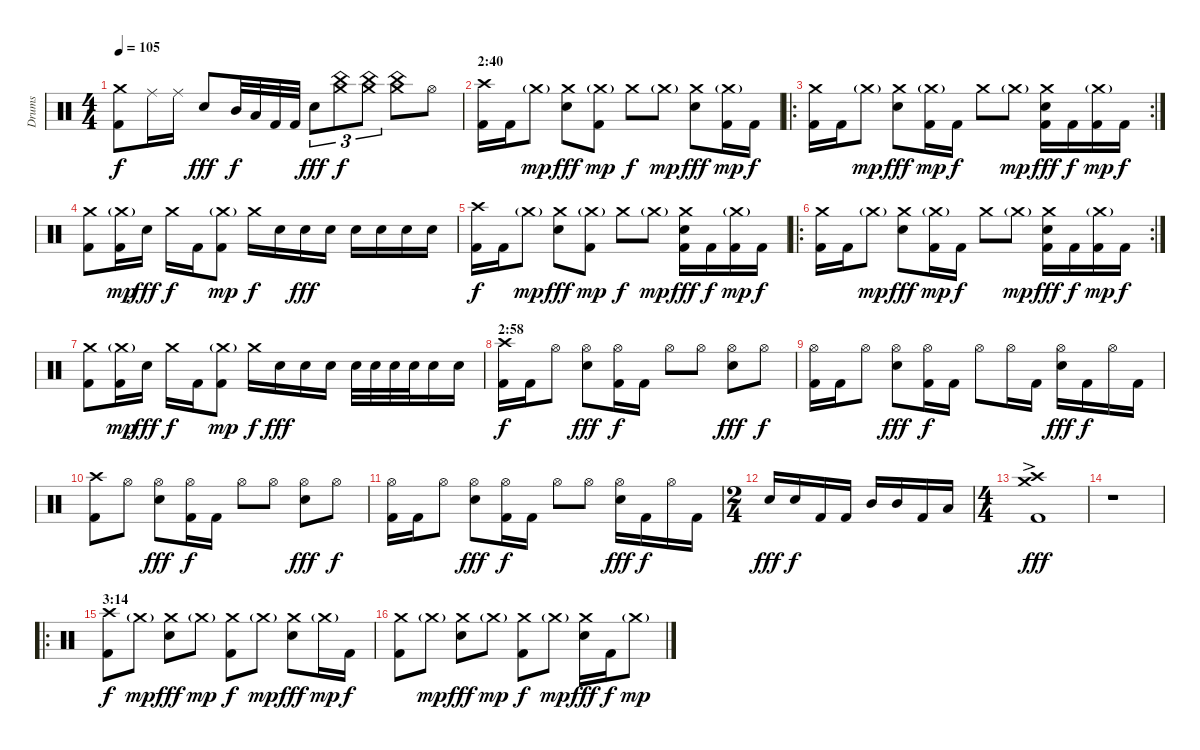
\track ("Drums" "Drums") {instrument percussion}
\staff {score}
\articulation defaults
\ts (4 4)
\tempo 105
\clef neutral
\ks c
("Crash medium (hit)" "Kick (hit) 2").8{dy f} "Ride (middle)".16 "Ride (middle)".16 "Snare (hit) 2".8{dy fff} "Mid Tom (hit)".32{dy f} "Low Tom (hit)".32 "Kick (hit) 2".32 "Kick (hit) 2".32 "Snare (hit) 2".8{tu (3 2) dy fff} ("China (hit)" "Crash medium (hit)").8{tu (3 2) dy f} ("China (hit)" "Crash medium (hit)").8{tu (3 2)} ("China (hit)" "Crash medium (hit)").8 "Hi-Hat (open)".8 |
\section ("" "2:40")
("Crash high (hit)" "Kick (hit) 2").16 "Kick (hit) 2".16 "Crash medium (hit)"{g}.8{dy mp} ("Crash medium (hit)" "Snare (hit) 2").8{dy fff} ("Crash medium (hit)"{g} "Kick (hit) 2").8{dy mp} "Crash medium (hit)".8{dy f} "Crash medium (hit)"{g}.8{dy mp} ("Crash medium (hit)" "Snare (hit) 2").8{dy fff} ("Crash medium (hit)"{g} "Kick (hit) 2").16{dy mp} "Kick (hit) 2".16{dy f} |
\ro
\rc 2
("Crash medium (hit)" "Kick (hit) 2").16 "Kick (hit) 2".16 "Crash medium (hit)"{g}.8{dy mp} ("Crash medium (hit)" "Snare (hit) 2").8{dy fff} ("Crash medium (hit)"{g} "Kick (hit) 2").16{dy mp} "Kick (hit) 2".16{dy f} "Crash medium (hit)".8 "Crash medium (hit)"{g}.8{dy mp} ("Crash medium (hit)" "Snare (hit) 2" "Kick (hit) 2").16{dy fff} "Kick (hit) 2".16{dy f} ("Crash medium (hit)"{g} "Kick (hit) 2").16{dy mp} "Kick (hit) 2".16{dy f} |
("Crash medium (hit)" "Kick (hit) 2").8 ("Crash medium (hit)"{g} "Kick (hit) 2").16{dy mp} "Snare (hit) 2".16{dy fff} "Crash medium (hit)".16{dy f} "Kick (hit) 2".16 ("Crash medium (hit)"{g} "Kick (hit) 2").8{dy mp} "Crash medium (hit)".16{dy f} "Snare (hit) 2".16 "Snare (hit) 2".16{dy fff} "Snare (hit) 2".16 "Snare (hit) 2".16 "Snare (hit) 2".16 "Snare (hit) 2".16 "Snare (hit) 2".16 |
("Crash high (hit)" "Kick (hit) 2").16{dy f} "Kick (hit) 2".16 "Crash medium (hit)"{g}.8{dy mp} ("Crash medium (hit)" "Snare (hit) 2").8{dy fff} ("Crash medium (hit)"{g} "Kick (hit) 2").8{dy mp} "Crash medium (hit)".8{dy f} "Crash medium (hit)"{g}.8{dy mp} ("Crash medium (hit)" "Snare (hit) 2" "Kick (hit) 2").16{dy fff} "Kick (hit) 2".16{dy f} ("Crash medium (hit)"{g} "Kick (hit) 2").16{dy mp} "Kick (hit) 2".16{dy f} |
\ro
\rc 2
("Crash medium (hit)" "Kick (hit) 2").16 "Kick (hit) 2".16 "Crash medium (hit)"{g}.8{dy mp} ("Crash medium (hit)" "Snare (hit) 2").8{dy fff} ("Crash medium (hit)"{g} "Kick (hit) 2").16{dy mp} "Kick (hit) 2".16{dy f} "Crash medium (hit)".8 "Crash medium (hit)"{g}.8{dy mp} ("Crash medium (hit)" "Snare (hit) 2" "Kick (hit) 2").16{dy fff} "Kick (hit) 2".16{dy f} ("Crash medium (hit)"{g} "Kick (hit) 2").16{dy mp} "Kick (hit) 2".16{dy f} |
("Crash medium (hit)" "Kick (hit) 2").8 ("Crash medium (hit)"{g} "Kick (hit) 2").16{dy mp} "Snare (hit) 2".16{dy fff} "Crash medium (hit)".16{dy f} "Kick (hit) 2".16 ("Crash medium (hit)"{g} "Kick (hit) 2").8{dy mp} "Crash medium (hit)".16{dy f} "Snare (hit) 2".16{dy fff} "Snare (hit) 2".16 "Snare (hit) 2".16 "Snare (hit) 2".32 "Snare (hit) 2".32 "Snare (hit) 2".32 "Snare (hit) 2".32 "Snare (hit) 2".16 "Snare (hit) 2".16 |
\section ("" "2:58")
("Crash high (hit)" "Kick (hit) 2").16{dy f} "Kick (hit) 2".16 "Hi-Hat (open)".8 ("Hi-Hat (open)" "Snare (hit) 2").8{dy fff} ("Hi-Hat (open)" "Kick (hit) 2").16{dy f} "Kick (hit) 2".16 "Hi-Hat (open)".8 "Hi-Hat (open)".8 ("Hi-Hat (open)" "Snare (hit) 2").8{dy fff} "Hi-Hat (open)".8{dy f} |
("Hi-Hat (open)" "Kick (hit) 2").16 "Kick (hit) 2".16 "Hi-Hat (open)".8 ("Hi-Hat (open)" "Snare (hit) 2").8{dy fff} ("Hi-Hat (open)" "Kick (hit) 2").16{dy f} "Kick (hit) 2".16 "Hi-Hat (open)".8 "Hi-Hat (open)".16 "Kick (hit) 2".16 ("Hi-Hat (open)" "Snare (hit) 2").16{dy fff} "Kick (hit) 2".16{dy f} "Hi-Hat (open)".16 "Kick (hit) 2".16 |
("Crash high (hit)" "Kick (hit) 2").8 "Hi-Hat (open)".8 ("Hi-Hat (open)" "Snare (hit) 2").8{dy fff} ("Hi-Hat (open)" "Kick (hit) 2").16{dy f} "Kick (hit) 2".16 "Hi-Hat (open)".8 "Hi-Hat (open)".8 ("Hi-Hat (open)" "Snare (hit) 2").8{dy fff} "Hi-Hat (open)".8{dy f} |
("Hi-Hat (open)" "Kick (hit) 2").16 "Kick (hit) 2".16 "Hi-Hat (open)".8 ("Hi-Hat (open)" "Snare (hit) 2").8{dy fff} ("Hi-Hat (open)" "Kick (hit) 2").16{dy f} "Kick (hit) 2".16 "Hi-Hat (open)".8 "Hi-Hat (open)".8 ("Hi-Hat (open)" "Snare (hit) 2").16{dy fff} "Kick (hit) 2".16{dy f} "Hi-Hat (open)".16 "Kick (hit) 2".16 |
\ts (2 4)
"Snare (hit) 2".16{dy fff} "Snare (hit) 2".16{dy f} "Kick (hit) 2".16 "Kick (hit) 2".16 "Mid Tom (hit)".16 "Mid Tom (hit)".16 "Kick (hit) 2".16 "Low Tom (hit)".16 |
\ts (4 4)
("Crash high (hit)"{ac} "Crash medium (hit)"{ac} "Kick (hit) 2").1{dy fff} |
r.1 |
\ro
\section ("" "3:14")
("Crash high (hit)" "Kick (hit) 2").8{dy f} "Crash medium (hit)"{g}.8{dy mp} ("Crash medium (hit)" "Snare (hit) 2").8{dy fff} "Crash medium (hit)"{g}.8{dy mp} ("Crash medium (hit)" "Kick (hit) 2").8{dy f} "Crash medium (hit)"{g}.8{dy mp} ("Crash medium (hit)" "Snare (hit) 2").8{dy fff} "Crash medium (hit)"{g}.16{dy mp} "Kick (hit) 2".16{dy f} |
("Crash medium (hit)" "Kick (hit) 2").8 "Crash medium (hit)"{g}.8{dy mp} ("Crash medium (hit)" "Snare (hit) 2").8{dy fff} "Crash medium (hit)"{g}.8{dy mp} ("Crash medium (hit)" "Kick (hit) 2").8{dy f} "Crash medium (hit)"{g}.8{dy mp} ("Crash medium (hit)" "Snare (hit) 2").16{dy fff} "Kick (hit) 2".16{dy f} "Crash medium (hit)"{g}.8{dy mp}
